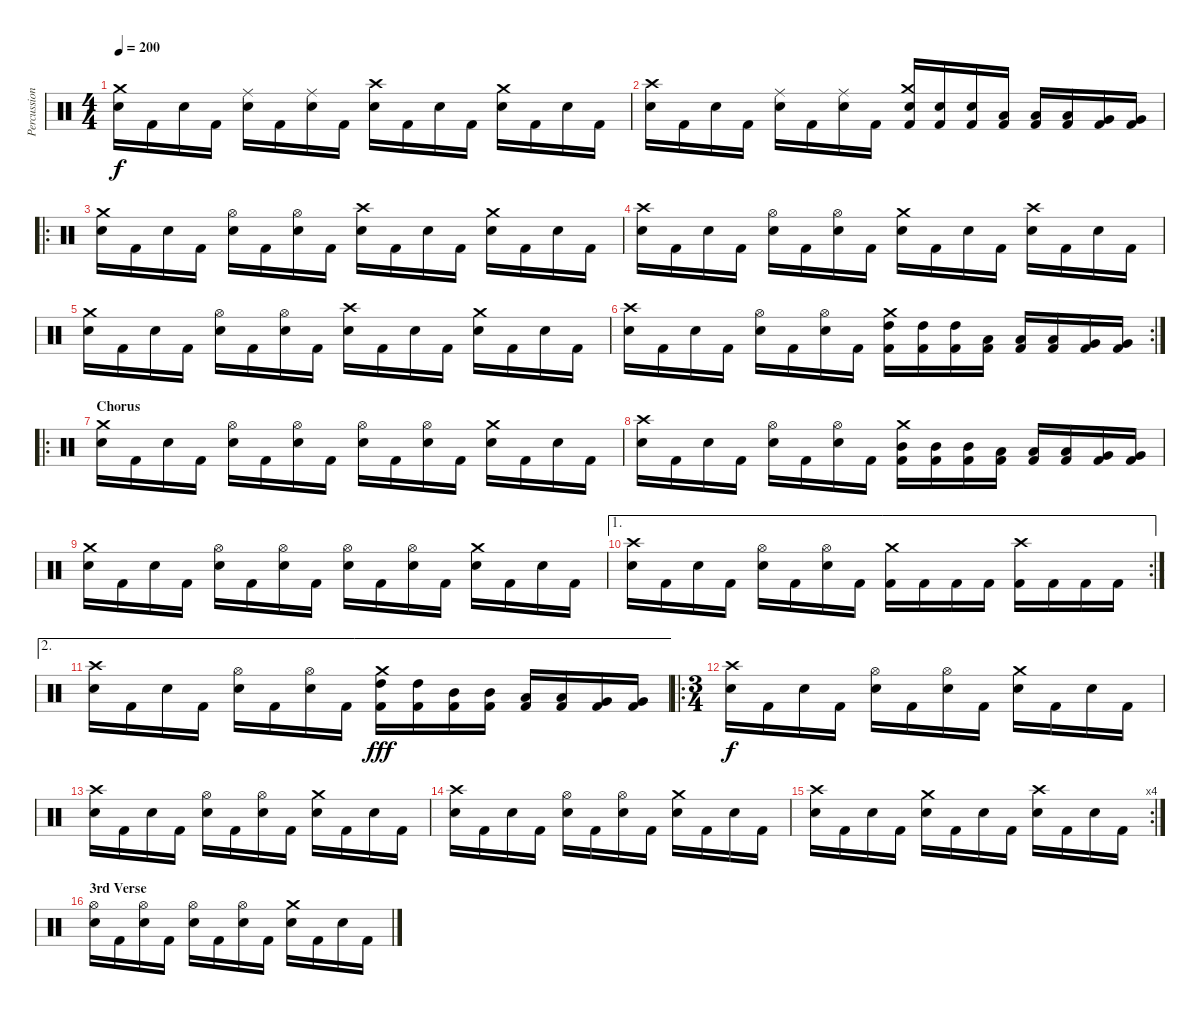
\track ("Percussion" "Percussion") {instrument percussion}
\staff {score}
\articulation defaults
\ts (4 4)
\tempo 200
\clef neutral
\ks c
("Snare (hit) 2" "Crash medium (hit)").16{dy f} "Kick (hit) 2".16 "Snare (hit) 2".16 "Kick (hit) 2".16 ("Snare (hit) 2" "Ride (middle)").16 "Kick (hit) 2".16 ("Snare (hit) 2" "Ride (middle)").16 "Kick (hit) 2".16 ("Snare (hit) 2" "Crash high (hit)").16 "Kick (hit) 2".16 "Snare (hit) 2".16 "Kick (hit) 2".16 ("Snare (hit) 2" "Crash medium (hit)").16 "Kick (hit) 2".16 "Snare (hit) 2".16 "Kick (hit) 2".16 |
("Snare (hit) 2" "Crash high (hit)").16 "Kick (hit) 2".16 "Snare (hit) 2".16 "Kick (hit) 2".16 ("Snare (hit) 2" "Ride (middle)").16 "Kick (hit) 2".16 ("Snare (hit) 2" "Ride (middle)").16 "Kick (hit) 2".16 ("Kick (hit) 2" "Snare (hit) 2" "Crash medium (hit)").16 ("Kick (hit) 2" "Snare (hit) 2").16 ("Kick (hit) 2" "Snare (hit) 2").16 ("Kick (hit) 2" "Low Tom (hit)").16 ("Kick (hit) 2" "Low Tom (hit)").16 ("Kick (hit) 2" "Low Tom (hit)").16 ("Kick (hit) 2" "Very Low Tom (hit)").16 ("Kick (hit) 2" "Very Low Tom (hit)").16 |
\ro
("Snare (hit) 2" "Crash medium (hit)").16 "Kick (hit) 2".16 "Snare (hit) 2".16 "Kick (hit) 2".16 ("Snare (hit) 2" "Hi-Hat (open)").16 "Kick (hit) 2".16 ("Snare (hit) 2" "Hi-Hat (open)").16 "Kick (hit) 2".16 ("Snare (hit) 2" "Crash high (hit)").16 "Kick (hit) 2".16 "Snare (hit) 2".16 "Kick (hit) 2".16 ("Snare (hit) 2" "Crash medium (hit)").16 "Kick (hit) 2".16 "Snare (hit) 2".16 "Kick (hit) 2".16 |
("Snare (hit) 2" "Crash high (hit)").16 "Kick (hit) 2".16 "Snare (hit) 2".16 "Kick (hit) 2".16 ("Snare (hit) 2" "Hi-Hat (open)").16 "Kick (hit) 2".16 ("Snare (hit) 2" "Hi-Hat (open)").16 "Kick (hit) 2".16 ("Snare (hit) 2" "Crash medium (hit)").16 "Kick (hit) 2".16 "Snare (hit) 2".16 "Kick (hit) 2".16 ("Snare (hit) 2" "Crash high (hit)").16 "Kick (hit) 2".16 "Snare (hit) 2".16 "Kick (hit) 2".16 |
("Snare (hit) 2" "Crash medium (hit)").16 "Kick (hit) 2".16 "Snare (hit) 2".16 "Kick (hit) 2".16 ("Snare (hit) 2" "Hi-Hat (open)").16 "Kick (hit) 2".16 ("Snare (hit) 2" "Hi-Hat (open)").16 "Kick (hit) 2".16 ("Snare (hit) 2" "Crash high (hit)").16 "Kick (hit) 2".16 "Snare (hit) 2".16 "Kick (hit) 2".16 ("Snare (hit) 2" "Crash medium (hit)").16 "Kick (hit) 2".16 "Snare (hit) 2".16 "Kick (hit) 2".16 |
\rc 2
("Snare (hit) 2" "Crash high (hit)").16 "Kick (hit) 2".16 "Snare (hit) 2".16 "Kick (hit) 2".16 ("Snare (hit) 2" "Hi-Hat (open)").16 "Kick (hit) 2".16 ("Snare (hit) 2" "Hi-Hat (open)").16 "Kick (hit) 2".16 ("Kick (hit) 2" "High Tom (hit)" "Crash medium (hit)").16 ("Kick (hit) 2" "High Tom (hit)").16 ("Kick (hit) 2" "High Tom (hit)").16 ("Kick (hit) 2" "Low Tom (hit)").16 ("Kick (hit) 2" "Low Tom (hit)").16 ("Kick (hit) 2" "Low Tom (hit)").16 ("Kick (hit) 2" "Very Low Tom (hit)").16 ("Kick (hit) 2" "Very Low Tom (hit)").16 |
\ro
\section ("" "Chorus")
("Snare (hit) 2" "Crash medium (hit)").16 "Kick (hit) 2".16 "Snare (hit) 2".16 "Kick (hit) 2".16 ("Snare (hit) 2" "Hi-Hat (open)").16 "Kick (hit) 2".16 ("Snare (hit) 2" "Hi-Hat (open)").16 "Kick (hit) 2".16 ("Snare (hit) 2" "Hi-Hat (open)").16 "Kick (hit) 2".16 ("Snare (hit) 2" "Hi-Hat (open)").16 "Kick (hit) 2".16 ("Snare (hit) 2" "Crash medium (hit)").16 "Kick (hit) 2".16 "Snare (hit) 2".16 "Kick (hit) 2".16 |
("Snare (hit) 2" "Crash high (hit)").16 "Kick (hit) 2".16 "Snare (hit) 2".16 "Kick (hit) 2".16 ("Snare (hit) 2" "Hi-Hat (open)").16 "Kick (hit) 2".16 ("Snare (hit) 2" "Hi-Hat (open)").16 "Kick (hit) 2".16 ("Kick (hit) 2" "Mid Tom (hit)" "Crash medium (hit)").16 ("Kick (hit) 2" "Mid Tom (hit)").16 ("Kick (hit) 2" "Mid Tom (hit)").16 ("Kick (hit) 2" "Low Tom (hit)").16 ("Kick (hit) 2" "Low Tom (hit)").16 ("Kick (hit) 2" "Low Tom (hit)").16 ("Kick (hit) 2" "Very Low Tom (hit)").16 ("Kick (hit) 2" "Very Low Tom (hit)").16 |
("Snare (hit) 2" "Crash medium (hit)").16 "Kick (hit) 2".16 "Snare (hit) 2".16 "Kick (hit) 2".16 ("Snare (hit) 2" "Hi-Hat (open)").16 "Kick (hit) 2".16 ("Snare (hit) 2" "Hi-Hat (open)").16 "Kick (hit) 2".16 ("Snare (hit) 2" "Hi-Hat (open)").16 "Kick (hit) 2".16 ("Snare (hit) 2" "Hi-Hat (open)").16 "Kick (hit) 2".16 ("Snare (hit) 2" "Crash medium (hit)").16 "Kick (hit) 2".16 "Snare (hit) 2".16 "Kick (hit) 2".16 |
\ae 1
\rc 2
("Snare (hit) 2" "Crash high (hit)").16 "Kick (hit) 2".16 "Snare (hit) 2".16 "Kick (hit) 2".16 ("Snare (hit) 2" "Hi-Hat (open)").16 "Kick (hit) 2".16 ("Snare (hit) 2" "Hi-Hat (open)").16 "Kick (hit) 2".16 ("Kick (hit) 2" "Crash medium (hit)").16 "Kick (hit) 2".16 "Kick (hit) 2".16 "Kick (hit) 2".16 ("Kick (hit) 2" "Crash high (hit)").16 "Kick (hit) 2".16 "Kick (hit) 2".16 "Kick (hit) 2".16 |
\ae 2
("Snare (hit) 2" "Crash high (hit)").16 "Kick (hit) 2".16 "Snare (hit) 2".16 "Kick (hit) 2".16 ("Snare (hit) 2" "Hi-Hat (open)").16 "Kick (hit) 2".16 ("Snare (hit) 2" "Hi-Hat (open)").16 "Kick (hit) 2".16 ("Kick (hit) 2" "High Tom (hit)" "Crash medium (hit)").16{dy fff} ("Kick (hit) 2" "High Tom (hit)").16 ("Kick (hit) 2" "Mid Tom (hit)").16 ("Kick (hit) 2" "Mid Tom (hit)").16 ("Kick (hit) 2" "Low Tom (hit)").16 ("Kick (hit) 2" "Low Tom (hit)").16 ("Kick (hit) 2" "Very Low Tom (hit)").16 ("Kick (hit) 2" "Very Low Tom (hit)").16 |
\ro
\ts (3 4)
("Snare (hit) 2" "Crash high (hit)").16{dy f} "Kick (hit) 2".16 "Snare (hit) 2".16 "Kick (hit) 2".16 ("Snare (hit) 2" "Hi-Hat (open)").16 "Kick (hit) 2".16 ("Snare (hit) 2" "Hi-Hat (open)").16 "Kick (hit) 2".16 ("Snare (hit) 2" "Crash medium (hit)").16 "Kick (hit) 2".16 "Snare (hit) 2".16 "Kick (hit) 2".16 |
("Snare (hit) 2" "Crash high (hit)").16 "Kick (hit) 2".16 "Snare (hit) 2".16 "Kick (hit) 2".16 ("Snare (hit) 2" "Hi-Hat (open)").16 "Kick (hit) 2".16 ("Snare (hit) 2" "Hi-Hat (open)").16 "Kick (hit) 2".16 ("Snare (hit) 2" "Crash medium (hit)").16 "Kick (hit) 2".16 "Snare (hit) 2".16 "Kick (hit) 2".16 |
("Snare (hit) 2" "Crash high (hit)").16 "Kick (hit) 2".16 "Snare (hit) 2".16 "Kick (hit) 2".16 ("Snare (hit) 2" "Hi-Hat (open)").16 "Kick (hit) 2".16 ("Snare (hit) 2" "Hi-Hat (open)").16 "Kick (hit) 2".16 ("Snare (hit) 2" "Crash medium (hit)").16 "Kick (hit) 2".16 "Snare (hit) 2".16 "Kick (hit) 2".16 |
\rc 4
("Snare (hit) 2" "Crash high (hit)").16 "Kick (hit) 2".16 "Snare (hit) 2".16 "Kick (hit) 2".16 ("Snare (hit) 2" "Crash medium (hit)").16 "Kick (hit) 2".16 "Snare (hit) 2".16 "Kick (hit) 2".16 ("Snare (hit) 2" "Crash high (hit)").16 "Kick (hit) 2".16 "Snare (hit) 2".16 "Kick (hit) 2".16 |
\section ("" "3rd Verse")
("Snare (hit) 2" "Hi-Hat (open)").16 "Kick (hit) 2".16 ("Snare (hit) 2" "Hi-Hat (open)").16 "Kick (hit) 2".16 ("Snare (hit) 2" "Hi-Hat (open)").16 "Kick (hit) 2".16 ("Snare (hit) 2" "Hi-Hat (open)").16 "Kick (hit) 2".16 ("Snare (hit) 2" "Crash medium (hit)").16 "Kick (hit) 2".16 "Snare (hit) 2".16 "Kick (hit) 2".16
